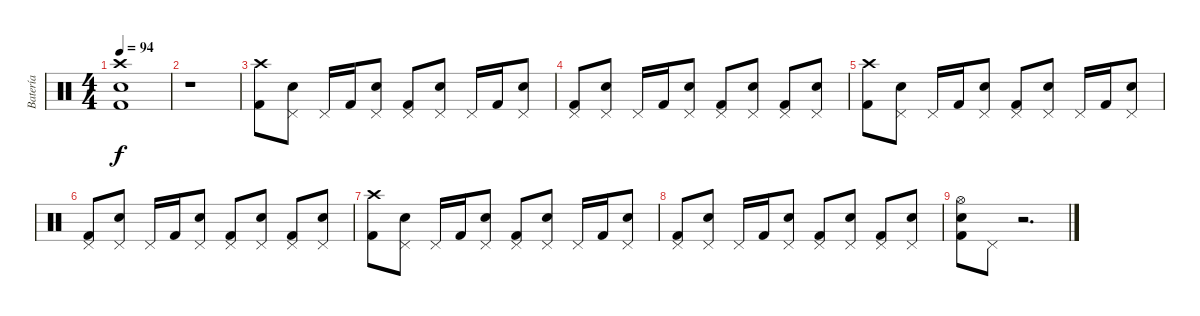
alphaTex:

\track ("Batería" "Batería") {instrument percussion}
\staff {score}
\articulation defaults
\ts (4 4)
\tempo 94
\clef neutral
\ks c
("Crash high (hit)" "Electric Snare (hit)" "Kick (hit) 2").1{dy f} |
r.1 |
("Crash high (hit)" "Kick (hit) 2").8 ("Pedal Hi-Hat (hit)" "Electric Snare (hit)").8 "Pedal Hi-Hat (hit)".16 "Kick (hit) 2".16 ("Pedal Hi-Hat (hit)" "Electric Snare (hit)").8 ("Pedal Hi-Hat (hit)" "Kick (hit) 2").8 ("Pedal Hi-Hat (hit)" "Electric Snare (hit)").8 "Pedal Hi-Hat (hit)".16 "Kick (hit) 2".16 ("Pedal Hi-Hat (hit)" "Electric Snare (hit)").8 |
("Pedal Hi-Hat (hit)" "Kick (hit) 2").8 ("Pedal Hi-Hat (hit)" "Electric Snare (hit)").8 "Pedal Hi-Hat (hit)".16 "Kick (hit) 2".16 ("Pedal Hi-Hat (hit)" "Electric Snare (hit)").8 ("Pedal Hi-Hat (hit)" "Kick (hit) 2").8 ("Pedal Hi-Hat (hit)" "Electric Snare (hit)").8 ("Pedal Hi-Hat (hit)" "Kick (hit) 2").8 ("Pedal Hi-Hat (hit)" "Electric Snare (hit)").8 |
("Crash high (hit)" "Kick (hit) 2").8 ("Pedal Hi-Hat (hit)" "Electric Snare (hit)").8 "Pedal Hi-Hat (hit)".16 "Kick (hit) 2".16 ("Pedal Hi-Hat (hit)" "Electric Snare (hit)").8 ("Pedal Hi-Hat (hit)" "Kick (hit) 2").8 ("Pedal Hi-Hat (hit)" "Electric Snare (hit)").8 "Pedal Hi-Hat (hit)".16 "Kick (hit) 2".16 ("Pedal Hi-Hat (hit)" "Electric Snare (hit)").8 |
("Pedal Hi-Hat (hit)" "Kick (hit) 2").8 ("Pedal Hi-Hat (hit)" "Electric Snare (hit)").8 "Pedal Hi-Hat (hit)".16 "Kick (hit) 2".16 ("Pedal Hi-Hat (hit)" "Electric Snare (hit)").8 ("Pedal Hi-Hat (hit)" "Kick (hit) 2").8 ("Pedal Hi-Hat (hit)" "Electric Snare (hit)").8 ("Pedal Hi-Hat (hit)" "Kick (hit) 2").8 ("Pedal Hi-Hat (hit)" "Electric Snare (hit)").8 |
("Crash high (hit)" "Kick (hit) 2").8 ("Pedal Hi-Hat (hit)" "Electric Snare (hit)").8 "Pedal Hi-Hat (hit)".16 "Kick (hit) 2".16 ("Pedal Hi-Hat (hit)" "Electric Snare (hit)").8 ("Pedal Hi-Hat (hit)" "Kick (hit) 2").8 ("Pedal Hi-Hat (hit)" "Electric Snare (hit)").8 "Pedal Hi-Hat (hit)".16 "Kick (hit) 2".16 ("Pedal Hi-Hat (hit)" "Electric Snare (hit)").8 |
("Pedal Hi-Hat (hit)" "Kick (hit) 2").8 ("Pedal Hi-Hat (hit)" "Electric Snare (hit)").8 "Pedal Hi-Hat (hit)".16 "Kick (hit) 2".16 ("Pedal Hi-Hat (hit)" "Electric Snare (hit)").8 ("Pedal Hi-Hat (hit)" "Kick (hit) 2").8 ("Pedal Hi-Hat (hit)" "Electric Snare (hit)").8 ("Pedal Hi-Hat (hit)" "Kick (hit) 2").8 ("Pedal Hi-Hat (hit)" "Electric Snare (hit)").8 |
("Hi-Hat (open)" "Electric Snare (hit)" "Kick (hit) 2").8 "Pedal Hi-Hat (hit)".8 r.2{d}
